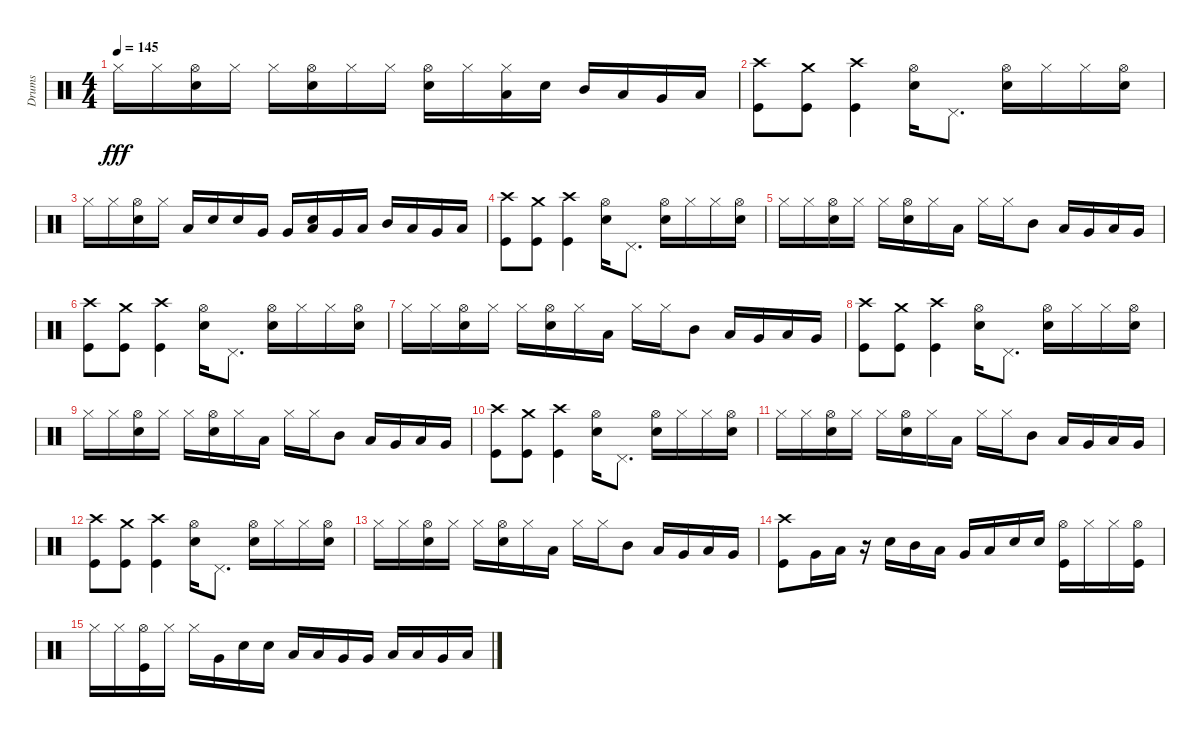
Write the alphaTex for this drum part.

\track ("Drums" "Drums") {instrument percussion}
\staff {score}
\articulation defaults
\ts (4 4)
\tempo 145
\clef neutral
\ks c "Hi-Hat (closed)".16{dy fff} "Hi-Hat (closed)".16
("Hi-Hat (open)" "Snare (hit) 2").16 "Hi-Hat (closed)".16 "Hi-Hat (closed)".16 ("Hi-Hat (open)" "Snare (hit) 2").16 "Hi-Hat (closed)".16 "Hi-Hat (closed)".16 ("Hi-Hat (open)" "Snare (hit) 2").16 "Hi-Hat (closed)".16 ("Hi-Hat (closed)" "Low Tom (hit)").16 "Snare (hit) 2".16 "Mid Tom (hit)".16 "Low Tom (hit)".16 "Very Low Tom (hit)".16 "Low Floor Tom (hit)".16 |
("Crash high (hit)" "Kick (hit)").8 ("Crash medium (hit)" "Kick (hit)").8 ("Crash high (hit)" "Kick (hit)").4 ("Hi-Hat (open)" "Snare (hit) 2").16 "Pedal Hi-Hat (hit)".8{d} ("Hi-Hat (open)" "Snare (hit) 2").16 "Hi-Hat (closed)".16 "Hi-Hat (closed)".16 ("Hi-Hat (open)" "Snare (hit) 2").16 |
"Hi-Hat (closed)".16 "Hi-Hat (closed)".16 ("Hi-Hat (open)" "Snare (hit) 2").16 "Hi-Hat (closed)".16 "Low Tom (hit)".16 "Snare (hit) 2".16 "Snare (hit) 2".16 "Very Low Tom (hit)".16 "Very Low Tom (hit)".16 ("Low Tom (hit)" "Snare (hit) 2").16 "Very Low Tom (hit)".16 "Low Floor Tom (hit)".16 "Mid Tom (hit)".16 "Low Tom (hit)".16 "Very Low Tom (hit)".16 "Low Floor Tom (hit)".16 |
("Crash high (hit)" "Kick (hit)").8 ("Crash medium (hit)" "Kick (hit)").8 ("Crash high (hit)" "Kick (hit)").4 ("Hi-Hat (open)" "Snare (hit) 2").16 "Pedal Hi-Hat (hit)".8{d} ("Hi-Hat (open)" "Snare (hit) 2").16 "Hi-Hat (closed)".16 "Hi-Hat (closed)".16 ("Hi-Hat (open)" "Snare (hit) 2").16 |
"Hi-Hat (closed)".16 "Hi-Hat (closed)".16 ("Hi-Hat (open)" "Snare (hit) 2").16 "Hi-Hat (closed)".16 "Hi-Hat (closed)".16 ("Hi-Hat (open)" "Snare (hit) 2").16 "Hi-Hat (closed)".16 "Low Tom (hit)".16 "Hi-Hat (closed)".16 "Hi-Hat (closed)".16 "Mid Tom (hit)".8 "Low Tom (hit)".16 "Very Low Tom (hit)".16 "Low Floor Tom (hit)".16 "Very Low Tom (hit)".16 |
("Crash high (hit)" "Kick (hit)").8 ("Crash medium (hit)" "Kick (hit)").8 ("Crash high (hit)" "Kick (hit)").4 ("Hi-Hat (open)" "Snare (hit) 2").16 "Pedal Hi-Hat (hit)".8{d} ("Hi-Hat (open)" "Snare (hit) 2").16 "Hi-Hat (closed)".16 "Hi-Hat (closed)".16 ("Hi-Hat (open)" "Snare (hit) 2").16 |
"Hi-Hat (closed)".16 "Hi-Hat (closed)".16 ("Hi-Hat (open)" "Snare (hit) 2").16 "Hi-Hat (closed)".16 "Hi-Hat (closed)".16 ("Hi-Hat (open)" "Snare (hit) 2").16 "Hi-Hat (closed)".16 "Low Tom (hit)".16 "Hi-Hat (closed)".16 "Hi-Hat (closed)".16 "Mid Tom (hit)".8 "Low Tom (hit)".16 "Very Low Tom (hit)".16 "Low Floor Tom (hit)".16 "Very Low Tom (hit)".16 |
("Crash high (hit)" "Kick (hit)").8 ("Crash medium (hit)" "Kick (hit)").8 ("Crash high (hit)" "Kick (hit)").4 ("Hi-Hat (open)" "Snare (hit) 2").16 "Pedal Hi-Hat (hit)".8{d} ("Hi-Hat (open)" "Snare (hit) 2").16 "Hi-Hat (closed)".16 "Hi-Hat (closed)".16 ("Hi-Hat (open)" "Snare (hit) 2").16 |
"Hi-Hat (closed)".16 "Hi-Hat (closed)".16 ("Hi-Hat (open)" "Snare (hit) 2").16 "Hi-Hat (closed)".16 "Hi-Hat (closed)".16 ("Hi-Hat (open)" "Snare (hit) 2").16 "Hi-Hat (closed)".16 "Low Tom (hit)".16 "Hi-Hat (closed)".16 "Hi-Hat (closed)".16 "Mid Tom (hit)".8 "Low Tom (hit)".16 "Very Low Tom (hit)".16 "Low Floor Tom (hit)".16 "Very Low Tom (hit)".16 |
("Crash high (hit)" "Kick (hit)").8 ("Crash medium (hit)" "Kick (hit)").8 ("Crash high (hit)" "Kick (hit)").4 ("Hi-Hat (open)" "Snare (hit) 2").16 "Pedal Hi-Hat (hit)".8{d} ("Hi-Hat (open)" "Snare (hit) 2").16 "Hi-Hat (closed)".16 "Hi-Hat (closed)".16 ("Hi-Hat (open)" "Snare (hit) 2").16 |
"Hi-Hat (closed)".16 "Hi-Hat (closed)".16 ("Hi-Hat (open)" "Snare (hit) 2").16 "Hi-Hat (closed)".16 "Hi-Hat (closed)".16 ("Hi-Hat (open)" "Snare (hit) 2").16 "Hi-Hat (closed)".16 "Low Tom (hit)".16 "Hi-Hat (closed)".16 "Hi-Hat (closed)".16 "Mid Tom (hit)".8 "Low Tom (hit)".16 "Very Low Tom (hit)".16 "Low Floor Tom (hit)".16 "Very Low Tom (hit)".16 |
("Crash high (hit)" "Kick (hit)").8{volume 8} ("Crash medium (hit)" "Kick (hit)").8 ("Crash high (hit)" "Kick (hit)").4 ("Hi-Hat (open)" "Snare (hit) 2").16 "Pedal Hi-Hat (hit)".8{d} ("Hi-Hat (open)" "Snare (hit) 2").16 "Hi-Hat (closed)".16 "Hi-Hat (closed)".16 ("Hi-Hat (open)" "Snare (hit) 2").16 |
"Hi-Hat (closed)".16 "Hi-Hat (closed)".16 ("Hi-Hat (open)" "Snare (hit) 2").16 "Hi-Hat (closed)".16 "Hi-Hat (closed)".16 ("Hi-Hat (open)" "Snare (hit) 2").16 "Hi-Hat (closed)".16 "Low Tom (hit)".16 "Hi-Hat (closed)".16 "Hi-Hat (closed)".16 "Mid Tom (hit)".8 "Low Tom (hit)".16 "Very Low Tom (hit)".16 "Low Floor Tom (hit)".16 "Very Low Tom (hit)".16 |
("Crash high (hit)" "Kick (hit)").8{volume 0} "Very Low Tom (hit)".16 "Low Floor Tom (hit)".16 r.16 "Snare (hit) 2".16 "Mid Tom (hit)".16 "Low Tom (hit)".16 "Very Low Tom (hit)".16 "Low Floor Tom (hit)".16 "Snare (hit) 2".16 "Snare (hit) 2".16 ("Hi-Hat (open)" "Kick (hit)").16 "Hi-Hat (closed)".16 "Hi-Hat (closed)".16 ("Hi-Hat (open)" "Kick (hit)").16 |
"Hi-Hat (closed)".16 "Hi-Hat (closed)".16 ("Hi-Hat (open)" "Kick (hit)").16 "Hi-Hat (closed)".16 "Hi-Hat (closed)".16 "Very Low Tom (hit)".16 "Snare (hit) 2".16 "Snare (hit) 2".16 "Low Tom (hit)".16 "Low Tom (hit)".16 "Very Low Tom (hit)".16 "Very Low Tom (hit)".16 "Low Floor Tom (hit)".16 "Low Tom (hit)".16 "Very Low Tom (hit)".16 "Low Floor Tom (hit)".16
